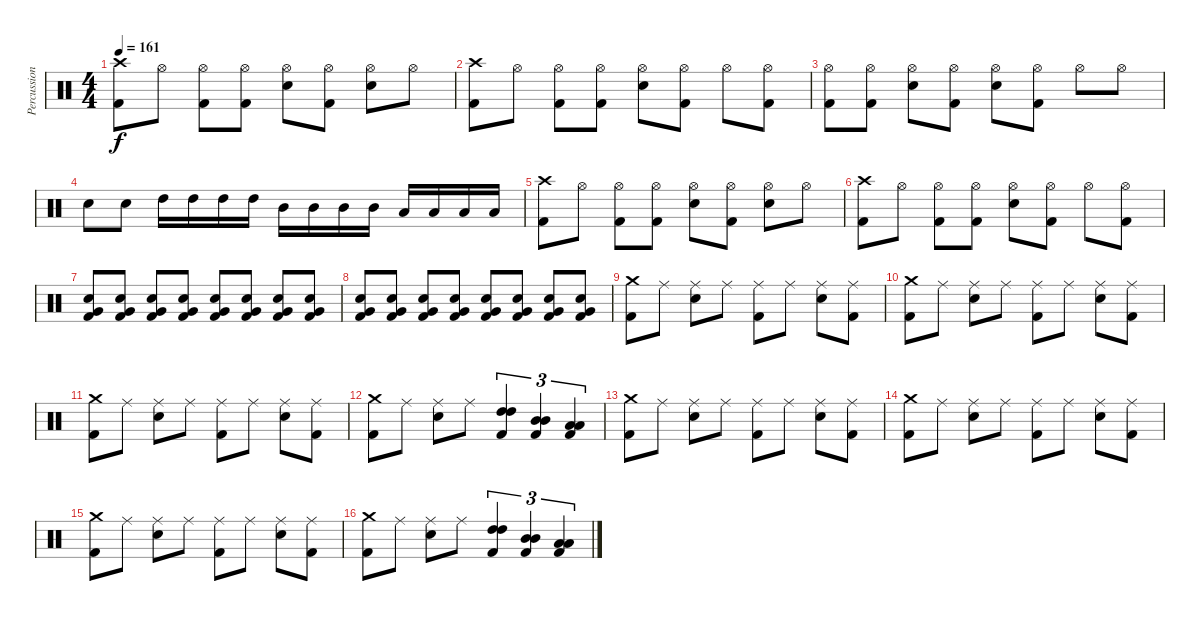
\track ("Percussions" "Percussion") {instrument percussion}
\staff {score}
\articulation defaults
\ts (4 4)
\tempo 161
\clef neutral
\ks c
("Kick (hit) 2" "Crash high (hit)").8{dy f} "Hi-Hat (open)".8 ("Kick (hit) 2" "Hi-Hat (open)").8 ("Kick (hit) 2" "Hi-Hat (open)").8 ("Electric Snare (hit)" "Hi-Hat (open)").8 ("Kick (hit) 2" "Hi-Hat (open)").8 ("Electric Snare (hit)" "Hi-Hat (open)").8 "Hi-Hat (open)".8 |
("Kick (hit) 2" "Crash high (hit)").8 "Hi-Hat (open)".8 ("Kick (hit) 2" "Hi-Hat (open)").8 ("Kick (hit) 2" "Hi-Hat (open)").8 ("Electric Snare (hit)" "Hi-Hat (open)").8 ("Kick (hit) 2" "Hi-Hat (open)").8 "Hi-Hat (open)".8 ("Kick (hit) 2" "Hi-Hat (open)").8 |
("Kick (hit) 2" "Hi-Hat (open)").8 ("Kick (hit) 2" "Hi-Hat (open)").8 ("Electric Snare (hit)" "Hi-Hat (open)").8 ("Kick (hit) 2" "Hi-Hat (open)").8 ("Electric Snare (hit)" "Hi-Hat (open)").8 ("Kick (hit) 2" "Hi-Hat (open)").8 "Hi-Hat (open)".8 "Hi-Hat (open)".8 |
"Electric Snare (hit)".8 "Electric Snare (hit)".8 "High Tom (hit)".16 "High Tom (hit)".16 "High Tom (hit)".16 "High Tom (hit)".16 "Mid Tom (hit)".16 "Mid Tom (hit)".16 "Mid Tom (hit)".16 "Mid Tom (hit)".16 "Low Tom (hit)".16 "Low Tom (hit)".16 "Low Tom (hit)".16 "Low Tom (hit)".16 |
("Kick (hit) 2" "Crash high (hit)").8 "Hi-Hat (open)".8 ("Kick (hit) 2" "Hi-Hat (open)").8 ("Kick (hit) 2" "Hi-Hat (open)").8 ("Electric Snare (hit)" "Hi-Hat (open)").8 ("Kick (hit) 2" "Hi-Hat (open)").8 ("Electric Snare (hit)" "Hi-Hat (open)").8 "Hi-Hat (open)".8 |
("Kick (hit) 2" "Crash high (hit)").8 "Hi-Hat (open)".8 ("Kick (hit) 2" "Hi-Hat (open)").8 ("Kick (hit) 2" "Hi-Hat (open)").8 ("Electric Snare (hit)" "Hi-Hat (open)").8 ("Kick (hit) 2" "Hi-Hat (open)").8 "Hi-Hat (open)".8 ("Kick (hit) 2" "Hi-Hat (open)").8 |
("Kick (hit) 2" "Very Low Tom (hit)" "Electric Snare (hit)").8 ("Kick (hit) 2" "Very Low Tom (hit)" "Electric Snare (hit)").8 ("Kick (hit) 2" "Very Low Tom (hit)" "Electric Snare (hit)").8 ("Kick (hit) 2" "Very Low Tom (hit)" "Electric Snare (hit)").8 ("Kick (hit) 2" "Very Low Tom (hit)" "Electric Snare (hit)").8 ("Kick (hit) 2" "Very Low Tom (hit)" "Electric Snare (hit)").8 ("Kick (hit) 2" "Very Low Tom (hit)" "Electric Snare (hit)").8 ("Kick (hit) 2" "Very Low Tom (hit)" "Electric Snare (hit)").8 |
("Kick (hit) 2" "Very Low Tom (hit)" "Electric Snare (hit)").8 ("Kick (hit) 2" "Very Low Tom (hit)" "Electric Snare (hit)").8 ("Kick (hit) 2" "Very Low Tom (hit)" "Electric Snare (hit)").8 ("Kick (hit) 2" "Very Low Tom (hit)" "Electric Snare (hit)").8 ("Kick (hit) 2" "Very Low Tom (hit)" "Electric Snare (hit)").8 ("Kick (hit) 2" "Very Low Tom (hit)" "Electric Snare (hit)").8 ("Kick (hit) 2" "Very Low Tom (hit)" "Electric Snare (hit)").8 ("Kick (hit) 2" "Very Low Tom (hit)" "Electric Snare (hit)").8 |
("Kick (hit) 2" "Crash medium (hit)").8 "Ride (middle)".8 ("Electric Snare (hit)" "Ride (middle)").8 "Ride (middle)".8 ("Kick (hit) 2" "Ride (middle)").8 "Ride (middle)".8 ("Electric Snare (hit)" "Ride (middle)").8 ("Kick (hit) 2" "Ride (middle)").8 |
("Kick (hit) 2" "Crash medium (hit)").8 "Ride (middle)".8 ("Electric Snare (hit)" "Ride (middle)").8 "Ride (middle)".8 ("Kick (hit) 2" "Ride (middle)").8 "Ride (middle)".8 ("Electric Snare (hit)" "Ride (middle)").8 ("Kick (hit) 2" "Ride (middle)").8 |
("Kick (hit) 2" "Crash medium (hit)").8 "Ride (middle)".8 ("Electric Snare (hit)" "Ride (middle)").8 "Ride (middle)".8 ("Kick (hit) 2" "Ride (middle)").8 "Ride (middle)".8 ("Electric Snare (hit)" "Ride (middle)").8 ("Kick (hit) 2" "Ride (middle)").8 |
("Kick (hit) 2" "Crash medium (hit)").8 "Ride (middle)".8 ("Electric Snare (hit)" "Ride (middle)").8 "Ride (middle)".8 ("Kick (hit) 2" "High Tom (hit)" "High Tom (hit)").4{tu (3 2)} ("Kick (hit) 2" "Mid Tom (hit)" "Mid Tom (hit)").4{tu (3 2)} ("Kick (hit) 2" "Low Tom (hit)" "Low Tom (hit)").4{tu (3 2)} |
("Kick (hit) 2" "Crash medium (hit)").8 "Ride (middle)".8 ("Electric Snare (hit)" "Ride (middle)").8 "Ride (middle)".8 ("Kick (hit) 2" "Ride (middle)").8 "Ride (middle)".8 ("Electric Snare (hit)" "Ride (middle)").8 ("Kick (hit) 2" "Ride (middle)").8 |
("Kick (hit) 2" "Crash medium (hit)").8 "Ride (middle)".8 ("Electric Snare (hit)" "Ride (middle)").8 "Ride (middle)".8 ("Kick (hit) 2" "Ride (middle)").8 "Ride (middle)".8 ("Electric Snare (hit)" "Ride (middle)").8 ("Kick (hit) 2" "Ride (middle)").8 |
("Kick (hit) 2" "Crash medium (hit)").8 "Ride (middle)".8 ("Electric Snare (hit)" "Ride (middle)").8 "Ride (middle)".8 ("Kick (hit) 2" "Ride (middle)").8 "Ride (middle)".8 ("Electric Snare (hit)" "Ride (middle)").8 ("Kick (hit) 2" "Ride (middle)").8 |
("Kick (hit) 2" "Crash medium (hit)").8 "Ride (middle)".8 ("Electric Snare (hit)" "Ride (middle)").8 "Ride (middle)".8 ("Kick (hit) 2" "High Tom (hit)" "High Tom (hit)").4{tu (3 2)} ("Kick (hit) 2" "Mid Tom (hit)" "Mid Tom (hit)").4{tu (3 2)} ("Kick (hit) 2" "Low Tom (hit)" "Low Tom (hit)").4{tu (3 2)}
